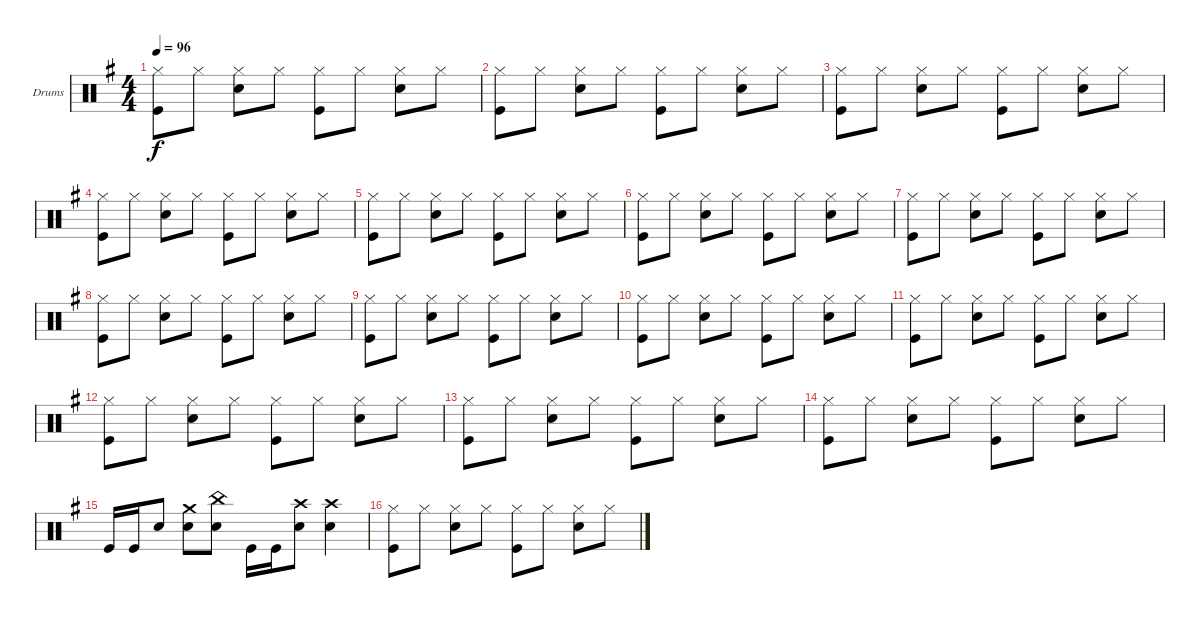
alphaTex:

\bracketExtendMode groupsimilarinstruments
\firstSystemTrackNameOrientation horizontal
\otherSystemsTrackNameOrientation horizontal
\track ("Drumkit" "Drums") {instrument percussion}
\staff {score}
\articulation defaults
\ts (4 4)
\tempo 96
\clef neutral
\ks eminor
("Hi-Hat (closed)" "Kick (hit)").8{dy f} "Hi-Hat (closed)".8 ("Hi-Hat (closed)" "Snare (hit) 2").8 "Hi-Hat (closed)".8 ("Hi-Hat (closed)" "Kick (hit)").8 "Hi-Hat (closed)".8 ("Hi-Hat (closed)" "Snare (hit) 2").8 "Hi-Hat (closed)".8 |
("Hi-Hat (closed)" "Kick (hit)").8 "Hi-Hat (closed)".8 ("Hi-Hat (closed)" "Snare (hit) 2").8 "Hi-Hat (closed)".8 ("Hi-Hat (closed)" "Kick (hit)").8 "Hi-Hat (closed)".8 ("Hi-Hat (closed)" "Snare (hit) 2").8 "Hi-Hat (closed)".8 |
("Hi-Hat (closed)" "Kick (hit)").8 "Hi-Hat (closed)".8 ("Hi-Hat (closed)" "Snare (hit) 2").8 "Hi-Hat (closed)".8 ("Hi-Hat (closed)" "Kick (hit)").8 "Hi-Hat (closed)".8 ("Hi-Hat (closed)" "Snare (hit) 2").8 "Hi-Hat (closed)".8 |
("Hi-Hat (closed)" "Kick (hit)").8 "Hi-Hat (closed)".8 ("Hi-Hat (closed)" "Snare (hit) 2").8 "Hi-Hat (closed)".8 ("Hi-Hat (closed)" "Kick (hit)").8 "Hi-Hat (closed)".8 ("Hi-Hat (closed)" "Snare (hit) 2").8 "Hi-Hat (closed)".8 |
("Hi-Hat (closed)" "Kick (hit)").8 "Hi-Hat (closed)".8 ("Hi-Hat (closed)" "Snare (hit) 2").8 "Hi-Hat (closed)".8 ("Hi-Hat (closed)" "Kick (hit)").8 "Hi-Hat (closed)".8 ("Hi-Hat (closed)" "Snare (hit) 2").8 "Hi-Hat (closed)".8 |
("Hi-Hat (closed)" "Kick (hit)").8 "Hi-Hat (closed)".8 ("Hi-Hat (closed)" "Snare (hit) 2").8 "Hi-Hat (closed)".8 ("Hi-Hat (closed)" "Kick (hit)").8 "Hi-Hat (closed)".8 ("Hi-Hat (closed)" "Snare (hit) 2").8 "Hi-Hat (closed)".8 |
("Hi-Hat (closed)" "Kick (hit)").8 "Hi-Hat (closed)".8 ("Hi-Hat (closed)" "Snare (hit) 2").8 "Hi-Hat (closed)".8 ("Hi-Hat (closed)" "Kick (hit)").8 "Hi-Hat (closed)".8 ("Hi-Hat (closed)" "Snare (hit) 2").8 "Hi-Hat (closed)".8 |
("Hi-Hat (closed)" "Kick (hit)").8 "Hi-Hat (closed)".8 ("Hi-Hat (closed)" "Snare (hit) 2").8 "Hi-Hat (closed)".8 ("Hi-Hat (closed)" "Kick (hit)").8 "Hi-Hat (closed)".8 ("Hi-Hat (closed)" "Snare (hit) 2").8 "Hi-Hat (closed)".8 |
("Hi-Hat (closed)" "Kick (hit)").8 "Hi-Hat (closed)".8 ("Hi-Hat (closed)" "Snare (hit) 2").8 "Hi-Hat (closed)".8 ("Hi-Hat (closed)" "Kick (hit)").8 "Hi-Hat (closed)".8 ("Hi-Hat (closed)" "Snare (hit) 2").8 "Hi-Hat (closed)".8 |
("Hi-Hat (closed)" "Kick (hit)").8 "Hi-Hat (closed)".8 ("Hi-Hat (closed)" "Snare (hit) 2").8 "Hi-Hat (closed)".8 ("Hi-Hat (closed)" "Kick (hit)").8 "Hi-Hat (closed)".8 ("Hi-Hat (closed)" "Snare (hit) 2").8 "Hi-Hat (closed)".8 |
("Hi-Hat (closed)" "Kick (hit)").8 "Hi-Hat (closed)".8 ("Hi-Hat (closed)" "Snare (hit) 2").8 "Hi-Hat (closed)".8 ("Hi-Hat (closed)" "Kick (hit)").8 "Hi-Hat (closed)".8 ("Hi-Hat (closed)" "Snare (hit) 2").8 "Hi-Hat (closed)".8 |
("Hi-Hat (closed)" "Kick (hit)").8 "Hi-Hat (closed)".8 ("Hi-Hat (closed)" "Snare (hit) 2").8 "Hi-Hat (closed)".8 ("Hi-Hat (closed)" "Kick (hit)").8 "Hi-Hat (closed)".8 ("Hi-Hat (closed)" "Snare (hit) 2").8 "Hi-Hat (closed)".8 |
("Hi-Hat (closed)" "Kick (hit)").8 "Hi-Hat (closed)".8 ("Hi-Hat (closed)" "Snare (hit) 2").8 "Hi-Hat (closed)".8 ("Hi-Hat (closed)" "Kick (hit)").8 "Hi-Hat (closed)".8 ("Hi-Hat (closed)" "Snare (hit) 2").8 "Hi-Hat (closed)".8 |
("Hi-Hat (closed)" "Kick (hit)").8 "Hi-Hat (closed)".8 ("Hi-Hat (closed)" "Snare (hit) 2").8 "Hi-Hat (closed)".8 ("Hi-Hat (closed)" "Kick (hit)").8 "Hi-Hat (closed)".8 ("Hi-Hat (closed)" "Snare (hit) 2").8 "Hi-Hat (closed)".8 |
"Kick (hit)".16 "Kick (hit)".16 "Snare (hit) 2".8 ("Crash medium (hit)" "Snare (hit) 2").8 ("China (hit)" "Snare (hit) 2").8 "Kick (hit)".16 "Kick (hit)".16 ("Crash high (hit)" "Snare (hit) 2").8 ("Crash high (hit)" "Snare (hit) 2").4 |
("Hi-Hat (closed)" "Kick (hit)").8 "Hi-Hat (closed)".8 ("Hi-Hat (closed)" "Snare (hit) 2").8 "Hi-Hat (closed)".8 ("Hi-Hat (closed)" "Kick (hit)").8 "Hi-Hat (closed)".8 ("Hi-Hat (closed)" "Snare (hit) 2").8 "Hi-Hat (closed)".8
